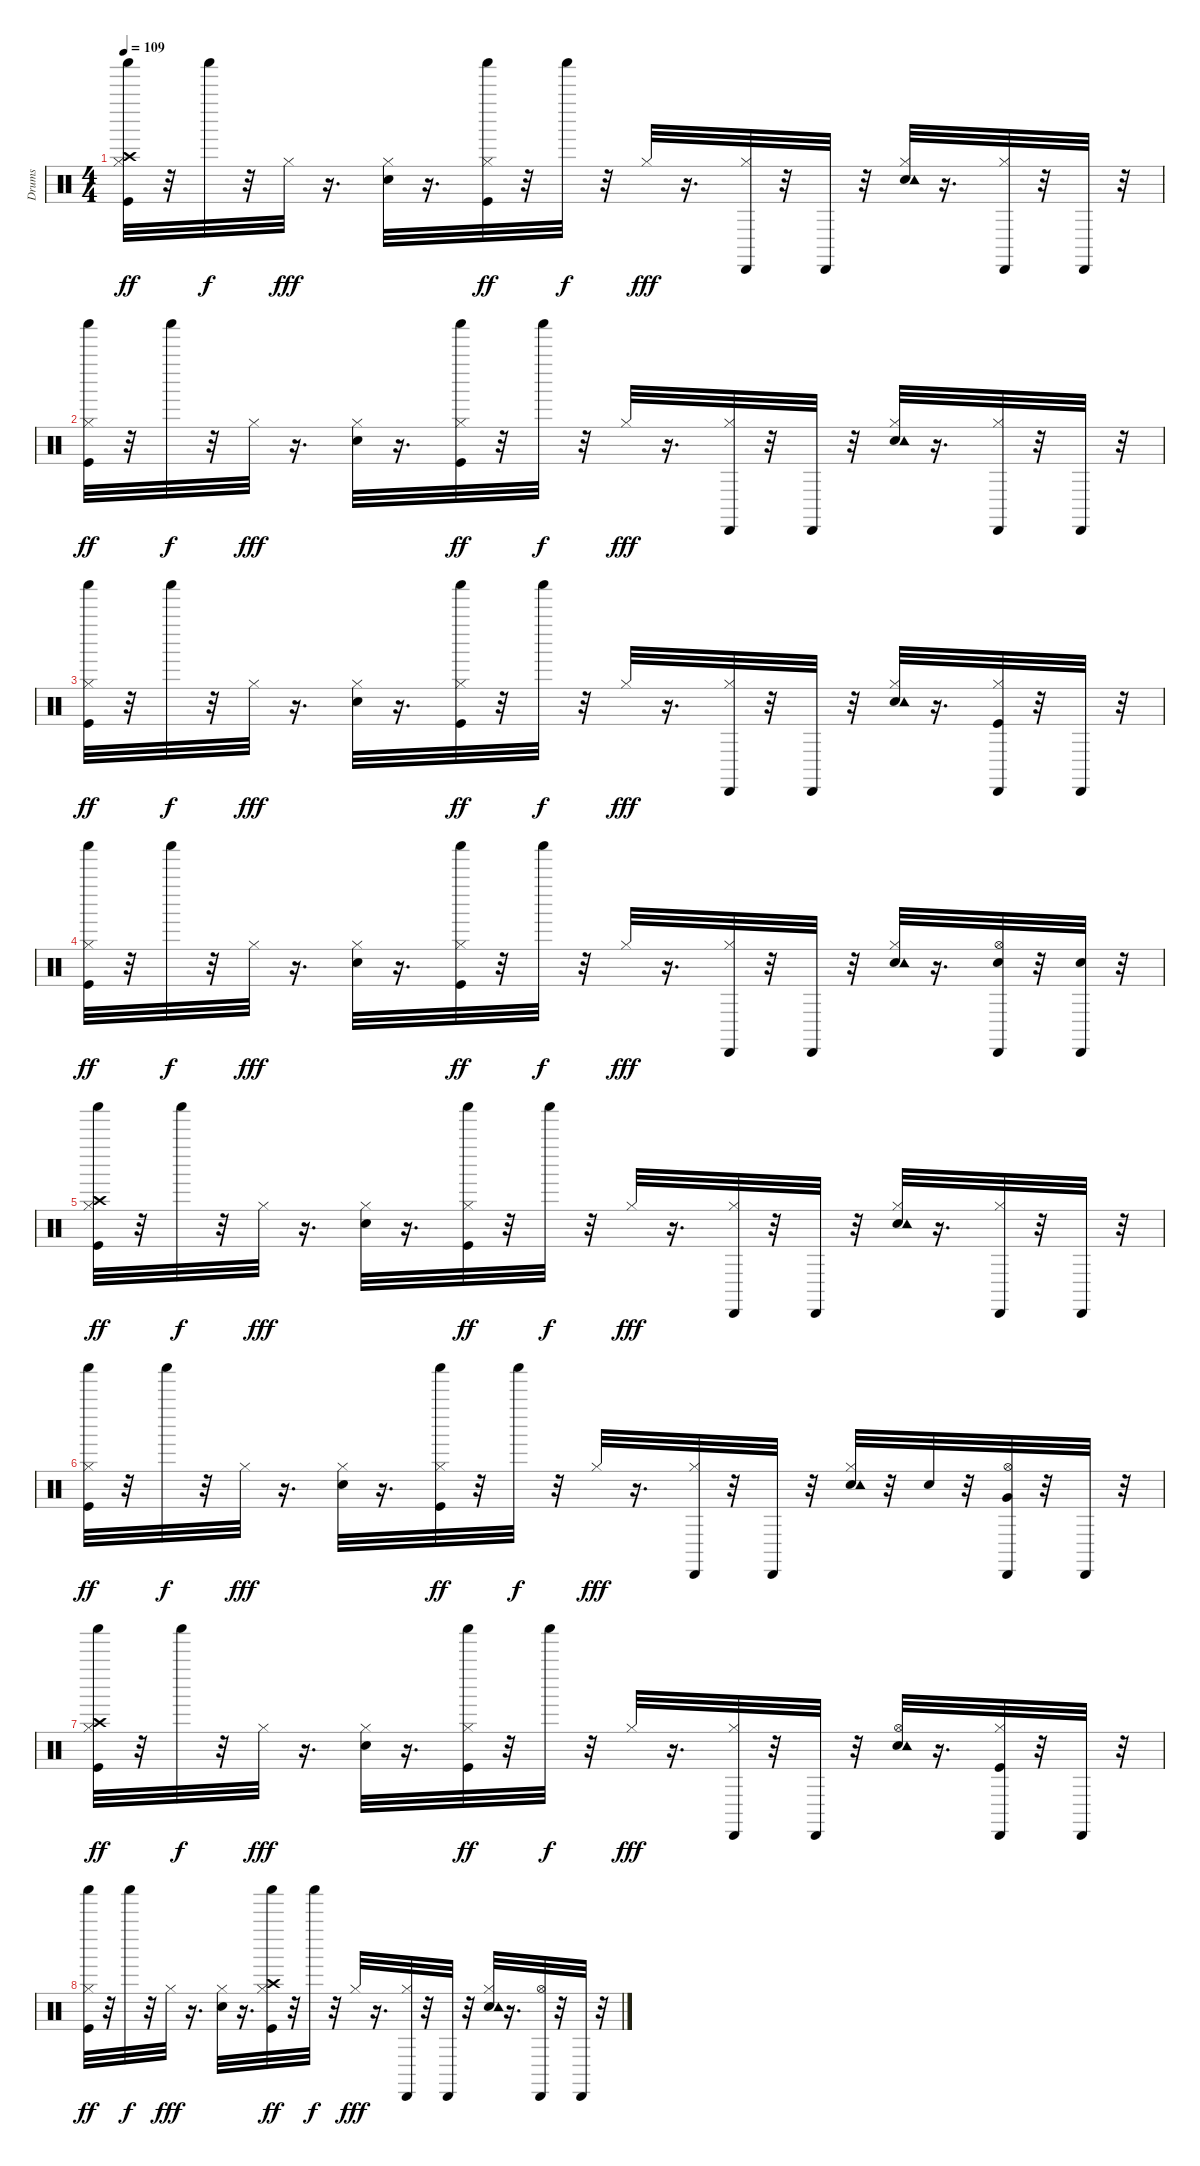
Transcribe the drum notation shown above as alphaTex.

\track ("Drums               " "Drums     ") {instrument percussion}
\staff {score}
\articulation defaults
\ts (4 4)
\tempo 109
\clef neutral
\ks c
("Kick (hit)" "Hi-Hat (closed)" "Crash high (hit)" "Shaker (hit)").32{dy ff} r.32 "Shaker (hit)".32{dy f} r.32 "Hi-Hat (closed)".32{dy fff} r.16{d} ("Electric Snare (hit)" "Hi-Hat (closed)").32 r.16{d} ("Kick (hit)" "Hi-Hat (closed)" "Shaker (hit)").32{dy ff} r.32 "Shaker (hit)".32{dy f} r.32 "Hi-Hat (closed)".32{dy fff} r.16{d} ("Hi-Hat (closed)" "Cabasa (hit)").32 r.32 "Cabasa (hit)".32 r.32 ("Electric Snare (hit)" "Hi-Hat (closed)" "Tambourine (hit)").32 r.16{d} ("Hi-Hat (closed)" "Cabasa (hit)").32 r.32 "Cabasa (hit)".32 r.32 |
("Kick (hit)" "Hi-Hat (closed)" "Shaker (hit)").32{dy ff} r.32 "Shaker (hit)".32{dy f} r.32 "Hi-Hat (closed)".32{dy fff} r.16{d} ("Electric Snare (hit)" "Hi-Hat (closed)").32 r.16{d} ("Kick (hit)" "Hi-Hat (closed)" "Shaker (hit)").32{dy ff} r.32 "Shaker (hit)".32{dy f} r.32 "Hi-Hat (closed)".32{dy fff} r.16{d} ("Hi-Hat (closed)" "Cabasa (hit)").32 r.32 "Cabasa (hit)".32 r.32 ("Electric Snare (hit)" "Hi-Hat (closed)" "Tambourine (hit)").32 r.16{d} ("Hi-Hat (closed)" "Cabasa (hit)").32 r.32 "Cabasa (hit)".32 r.32 |
("Kick (hit)" "Hi-Hat (closed)" "Shaker (hit)").32{dy ff} r.32 "Shaker (hit)".32{dy f} r.32 "Hi-Hat (closed)".32{dy fff} r.16{d} ("Electric Snare (hit)" "Hi-Hat (closed)").32 r.16{d} ("Kick (hit)" "Hi-Hat (closed)" "Shaker (hit)").32{dy ff} r.32 "Shaker (hit)".32{dy f} r.32 "Hi-Hat (closed)".32{dy fff} r.16{d} ("Hi-Hat (closed)" "Cabasa (hit)").32 r.32 "Cabasa (hit)".32 r.32 ("Electric Snare (hit)" "Hi-Hat (closed)" "Tambourine (hit)").32 r.16{d} ("Kick (hit)" "Hi-Hat (closed)" "Cabasa (hit)").32 r.32 "Cabasa (hit)".32 r.32 |
("Kick (hit)" "Hi-Hat (closed)" "Shaker (hit)").32{dy ff} r.32 "Shaker (hit)".32{dy f} r.32 "Hi-Hat (closed)".32{dy fff} r.16{d} ("Electric Snare (hit)" "Hi-Hat (closed)").32 r.16{d} ("Kick (hit)" "Hi-Hat (closed)" "Shaker (hit)").32{dy ff} r.32 "Shaker (hit)".32{dy f} r.32 "Hi-Hat (closed)".32{dy fff} r.16{d} ("Hi-Hat (closed)" "Cabasa (hit)").32 r.32 "Cabasa (hit)".32 r.32 ("Electric Snare (hit)" "Hi-Hat (closed)" "Tambourine (hit)").32 r.16{d} ("Electric Snare (hit)" "Hi-Hat (open)" "Cabasa (hit)").32 r.32 ("Electric Snare (hit)" "Cabasa (hit)").32 r.32 |
("Kick (hit)" "Hi-Hat (closed)" "Crash high (hit)" "Shaker (hit)").32{dy ff} r.32 "Shaker (hit)".32{dy f} r.32 "Hi-Hat (closed)".32{dy fff} r.16{d} ("Electric Snare (hit)" "Hi-Hat (closed)").32 r.16{d} ("Kick (hit)" "Hi-Hat (closed)" "Shaker (hit)").32{dy ff} r.32 "Shaker (hit)".32{dy f} r.32 "Hi-Hat (closed)".32{dy fff} r.16{d} ("Hi-Hat (closed)" "Cabasa (hit)").32 r.32 "Cabasa (hit)".32 r.32 ("Electric Snare (hit)" "Hi-Hat (closed)" "Tambourine (hit)").32 r.16{d} ("Hi-Hat (closed)" "Cabasa (hit)").32 r.32 "Cabasa (hit)".32 r.32 |
("Kick (hit)" "Hi-Hat (closed)" "Shaker (hit)").32{dy ff} r.32 "Shaker (hit)".32{dy f} r.32 "Hi-Hat (closed)".32{dy fff} r.16{d} ("Electric Snare (hit)" "Hi-Hat (closed)").32 r.16{d} ("Kick (hit)" "Hi-Hat (closed)" "Shaker (hit)").32{dy ff} r.32 "Shaker (hit)".32{dy f} r.32 "Hi-Hat (closed)".32{dy fff} r.16{d} ("Hi-Hat (closed)" "Cabasa (hit)").32 r.32 "Cabasa (hit)".32 r.32 ("Electric Snare (hit)" "Hi-Hat (closed)" "Tambourine (hit)").32 r.32 "Electric Snare (hit)".32 r.32 ("Very Low Tom (hit)" "Hi-Hat (open)" "Cabasa (hit)").32 r.32 "Cabasa (hit)".32 r.32 |
("Kick (hit)" "Hi-Hat (closed)" "Crash high (hit)" "Shaker (hit)").32{dy ff} r.32 "Shaker (hit)".32{dy f} r.32 "Hi-Hat (closed)".32{dy fff} r.16{d} ("Electric Snare (hit)" "Hi-Hat (closed)").32 r.16{d} ("Kick (hit)" "Hi-Hat (closed)" "Shaker (hit)").32{dy ff} r.32 "Shaker (hit)".32{dy f} r.32 "Hi-Hat (closed)".32{dy fff} r.16{d} ("Hi-Hat (closed)" "Cabasa (hit)").32 r.32 "Cabasa (hit)".32 r.32 ("Electric Snare (hit)" "Hi-Hat (open)" "Tambourine (hit)").32 r.16{d} ("Kick (hit)" "Hi-Hat (closed)" "Cabasa (hit)").32 r.32 "Cabasa (hit)".32 r.32 |
("Kick (hit)" "Hi-Hat (closed)" "Shaker (hit)").32{dy ff} r.32 "Shaker (hit)".32{dy f} r.32 "Hi-Hat (closed)".32{dy fff} r.16{d} ("Electric Snare (hit)" "Hi-Hat (closed)").32 r.16{d} ("Kick (hit)" "Hi-Hat (closed)" "Crash high (hit)" "Shaker (hit)").32{dy ff} r.32 "Shaker (hit)".32{dy f} r.32 "Hi-Hat (closed)".32{dy fff} r.16{d} ("Hi-Hat (closed)" "Cabasa (hit)").32 r.32 "Cabasa (hit)".32 r.32 ("Electric Snare (hit)" "Hi-Hat (closed)" "Tambourine (hit)").32 r.16{d} ("Hi-Hat (open)" "Cabasa (hit)").32 r.32 "Cabasa (hit)".32 r.32
